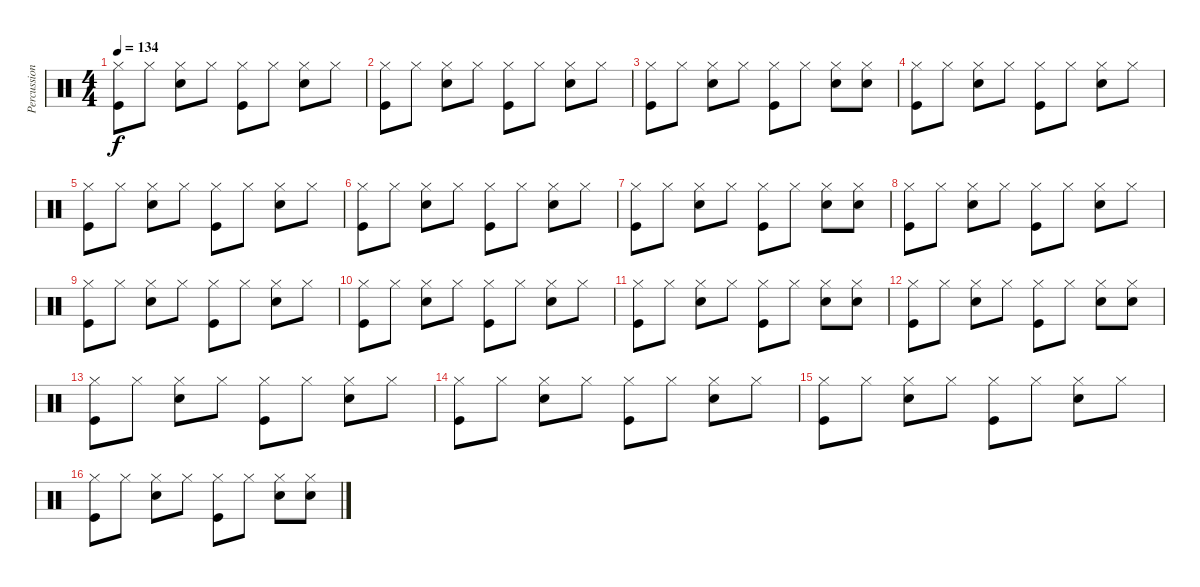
\track ("Percussion" "Percussion") {instrument percussion}
\staff {score}
\articulation defaults
\ts (4 4)
\tempo 134
\clef neutral
\ks c
("Hi-Hat (closed)" "Kick (hit)").8{dy f} "Hi-Hat (closed)".8 ("Hi-Hat (closed)" "Snare (hit) 2").8 "Hi-Hat (closed)".8 ("Hi-Hat (closed)" "Kick (hit)").8 "Hi-Hat (closed)".8 ("Hi-Hat (closed)" "Snare (hit) 2").8 "Hi-Hat (closed)".8 |
("Hi-Hat (closed)" "Kick (hit)").8 "Hi-Hat (closed)".8 ("Hi-Hat (closed)" "Snare (hit) 2").8 "Hi-Hat (closed)".8 ("Hi-Hat (closed)" "Kick (hit)").8 "Hi-Hat (closed)".8 ("Hi-Hat (closed)" "Snare (hit) 2").8 "Hi-Hat (closed)".8 |
("Hi-Hat (closed)" "Kick (hit)").8 "Hi-Hat (closed)".8 ("Hi-Hat (closed)" "Snare (hit) 2").8 "Hi-Hat (closed)".8 ("Hi-Hat (closed)" "Kick (hit)").8 "Hi-Hat (closed)".8 ("Hi-Hat (closed)" "Snare (hit) 2").8 ("Hi-Hat (closed)" "Snare (hit) 2").8 |
("Hi-Hat (closed)" "Kick (hit)").8 "Hi-Hat (closed)".8 ("Hi-Hat (closed)" "Snare (hit) 2").8 "Hi-Hat (closed)".8 ("Hi-Hat (closed)" "Kick (hit)").8 "Hi-Hat (closed)".8 ("Hi-Hat (closed)" "Snare (hit) 2").8 "Hi-Hat (closed)".8 |
("Hi-Hat (closed)" "Kick (hit)").8 "Hi-Hat (closed)".8 ("Hi-Hat (closed)" "Snare (hit) 2").8 "Hi-Hat (closed)".8 ("Hi-Hat (closed)" "Kick (hit)").8 "Hi-Hat (closed)".8 ("Hi-Hat (closed)" "Snare (hit) 2").8 "Hi-Hat (closed)".8 |
("Hi-Hat (closed)" "Kick (hit)").8 "Hi-Hat (closed)".8 ("Hi-Hat (closed)" "Snare (hit) 2").8 "Hi-Hat (closed)".8 ("Hi-Hat (closed)" "Kick (hit)").8 "Hi-Hat (closed)".8 ("Hi-Hat (closed)" "Snare (hit) 2").8 "Hi-Hat (closed)".8 |
("Hi-Hat (closed)" "Kick (hit)").8 "Hi-Hat (closed)".8 ("Hi-Hat (closed)" "Snare (hit) 2").8 "Hi-Hat (closed)".8 ("Hi-Hat (closed)" "Kick (hit)").8 "Hi-Hat (closed)".8 ("Hi-Hat (closed)" "Snare (hit) 2").8 ("Hi-Hat (closed)" "Snare (hit) 2").8 |
("Hi-Hat (closed)" "Kick (hit)").8 "Hi-Hat (closed)".8 ("Hi-Hat (closed)" "Snare (hit) 2").8 "Hi-Hat (closed)".8 ("Hi-Hat (closed)" "Kick (hit)").8 "Hi-Hat (closed)".8 ("Hi-Hat (closed)" "Snare (hit) 2").8 "Hi-Hat (closed)".8 |
("Hi-Hat (closed)" "Kick (hit)").8 "Hi-Hat (closed)".8 ("Hi-Hat (closed)" "Snare (hit) 2").8 "Hi-Hat (closed)".8 ("Hi-Hat (closed)" "Kick (hit)").8 "Hi-Hat (closed)".8 ("Hi-Hat (closed)" "Snare (hit) 2").8 "Hi-Hat (closed)".8 |
("Hi-Hat (closed)" "Kick (hit)").8 "Hi-Hat (closed)".8 ("Hi-Hat (closed)" "Snare (hit) 2").8 "Hi-Hat (closed)".8 ("Hi-Hat (closed)" "Kick (hit)").8 "Hi-Hat (closed)".8 ("Hi-Hat (closed)" "Snare (hit) 2").8 "Hi-Hat (closed)".8 |
("Hi-Hat (closed)" "Kick (hit)").8 "Hi-Hat (closed)".8 ("Hi-Hat (closed)" "Snare (hit) 2").8 "Hi-Hat (closed)".8 ("Hi-Hat (closed)" "Kick (hit)").8 "Hi-Hat (closed)".8 ("Hi-Hat (closed)" "Snare (hit) 2").8 ("Hi-Hat (closed)" "Snare (hit) 2").8 |
("Hi-Hat (closed)" "Kick (hit)").8 "Hi-Hat (closed)".8 ("Hi-Hat (closed)" "Snare (hit) 2").8 "Hi-Hat (closed)".8 ("Hi-Hat (closed)" "Kick (hit)").8 "Hi-Hat (closed)".8 ("Hi-Hat (closed)" "Snare (hit) 2").8 ("Hi-Hat (closed)" "Snare (hit) 2").8 |
("Hi-Hat (closed)" "Kick (hit)").8 "Hi-Hat (closed)".8 ("Hi-Hat (closed)" "Snare (hit) 2").8 "Hi-Hat (closed)".8 ("Hi-Hat (closed)" "Kick (hit)").8 "Hi-Hat (closed)".8 ("Hi-Hat (closed)" "Snare (hit) 2").8 "Hi-Hat (closed)".8 |
("Hi-Hat (closed)" "Kick (hit)").8 "Hi-Hat (closed)".8 ("Hi-Hat (closed)" "Snare (hit) 2").8 "Hi-Hat (closed)".8 ("Hi-Hat (closed)" "Kick (hit)").8 "Hi-Hat (closed)".8 ("Hi-Hat (closed)" "Snare (hit) 2").8 "Hi-Hat (closed)".8 |
("Hi-Hat (closed)" "Kick (hit)").8 "Hi-Hat (closed)".8 ("Hi-Hat (closed)" "Snare (hit) 2").8 "Hi-Hat (closed)".8 ("Hi-Hat (closed)" "Kick (hit)").8 "Hi-Hat (closed)".8 ("Hi-Hat (closed)" "Snare (hit) 2").8 "Hi-Hat (closed)".8 |
("Hi-Hat (closed)" "Kick (hit)").8 "Hi-Hat (closed)".8 ("Hi-Hat (closed)" "Snare (hit) 2").8 "Hi-Hat (closed)".8 ("Hi-Hat (closed)" "Kick (hit)").8 "Hi-Hat (closed)".8 ("Hi-Hat (closed)" "Snare (hit) 2").8 ("Hi-Hat (closed)" "Snare (hit) 2").8
